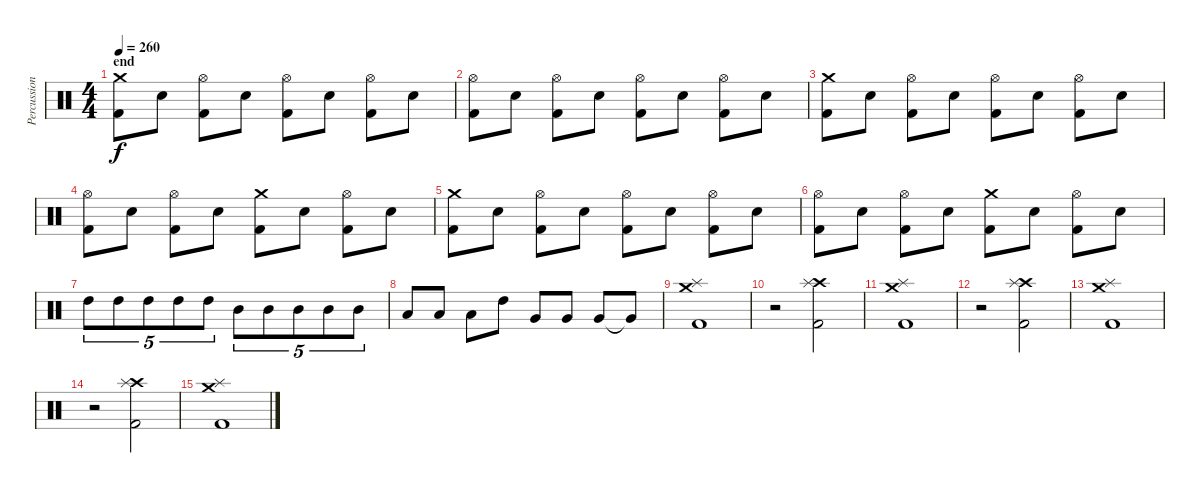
\track ("Percussion" "Percussion") {instrument percussion}
\staff {score}
\articulation defaults
\ts (4 4)
\section ("" "end")
\tempo 260
\clef neutral
\ks c
("Crash medium (hit)" "Kick (hit) 2").8{dy f} "Snare (hit) 2".8 ("Hi-Hat (open)" "Kick (hit) 2").8 "Snare (hit) 2".8 ("Hi-Hat (open)" "Kick (hit) 2").8 "Snare (hit) 2".8 ("Hi-Hat (open)" "Kick (hit) 2").8 "Snare (hit) 2".8 |
("Hi-Hat (open)" "Kick (hit) 2").8 "Snare (hit) 2".8 ("Hi-Hat (open)" "Kick (hit) 2").8 "Snare (hit) 2".8 ("Hi-Hat (open)" "Kick (hit) 2").8 "Snare (hit) 2".8 ("Hi-Hat (open)" "Kick (hit) 2").8 "Snare (hit) 2".8 |
("Crash medium (hit)" "Kick (hit) 2").8 "Snare (hit) 2".8 ("Hi-Hat (open)" "Kick (hit) 2").8 "Snare (hit) 2".8 ("Hi-Hat (open)" "Kick (hit) 2").8 "Snare (hit) 2".8 ("Hi-Hat (open)" "Kick (hit) 2").8 "Snare (hit) 2".8 |
("Hi-Hat (open)" "Kick (hit) 2").8 "Snare (hit) 2".8 ("Hi-Hat (open)" "Kick (hit) 2").8 "Snare (hit) 2".8 ("Crash medium (hit)" "Kick (hit) 2").8 "Snare (hit) 2".8 ("Hi-Hat (open)" "Kick (hit) 2").8 "Snare (hit) 2".8 |
("Crash medium (hit)" "Kick (hit) 2").8 "Snare (hit) 2".8 ("Hi-Hat (open)" "Kick (hit) 2").8 "Snare (hit) 2".8 ("Hi-Hat (open)" "Kick (hit) 2").8 "Snare (hit) 2".8 ("Hi-Hat (open)" "Kick (hit) 2").8 "Snare (hit) 2".8 |
("Hi-Hat (open)" "Kick (hit) 2").8 "Snare (hit) 2".8 ("Hi-Hat (open)" "Kick (hit) 2").8 "Snare (hit) 2".8 ("Crash medium (hit)" "Kick (hit) 2").8 "Snare (hit) 2".8 ("Hi-Hat (open)" "Kick (hit) 2").8 "Snare (hit) 2".8 |
"High Tom (hit)".8{tu (5 4)} "High Tom (hit)".8{tu (5 4)} "High Tom (hit)".8{tu (5 4)} "High Tom (hit)".8{tu (5 4)} "High Tom (hit)".8{tu (5 4)} "Mid Tom (hit)".8{tu (5 4)} "Mid Tom (hit)".8{tu (5 4)} "Mid Tom (hit)".8{tu (5 4)} "Mid Tom (hit)".8{tu (5 4)} "Mid Tom (hit)".8{tu (5 4)} |
"Low Tom (hit)".8 "Low Tom (hit)".8 "Low Tom (hit)".8 "High Tom (hit)".8 "Very Low Tom (hit)".8 "Very Low Tom (hit)".8 "Very Low Tom (hit)".8 "Very Low Tom (hit)"{t}.8 |
("Crash medium (hit)" "Splash (hit)" "Kick (hit) 2").1 |
r.2 ("Crash high (hit)" "Splash (hit)" "Kick (hit) 2").2 |
("Crash medium (hit)" "Splash (hit)" "Kick (hit) 2").1 |
r.2 ("Crash high (hit)" "Splash (hit)" "Kick (hit) 2").2 |
("Crash medium (hit)" "Splash (hit)" "Kick (hit) 2").1 |
r.2 ("Crash high (hit)" "Splash (hit)" "Kick (hit) 2").2 |
("Crash medium (hit)" "Splash (hit)" "Kick (hit) 2").1
